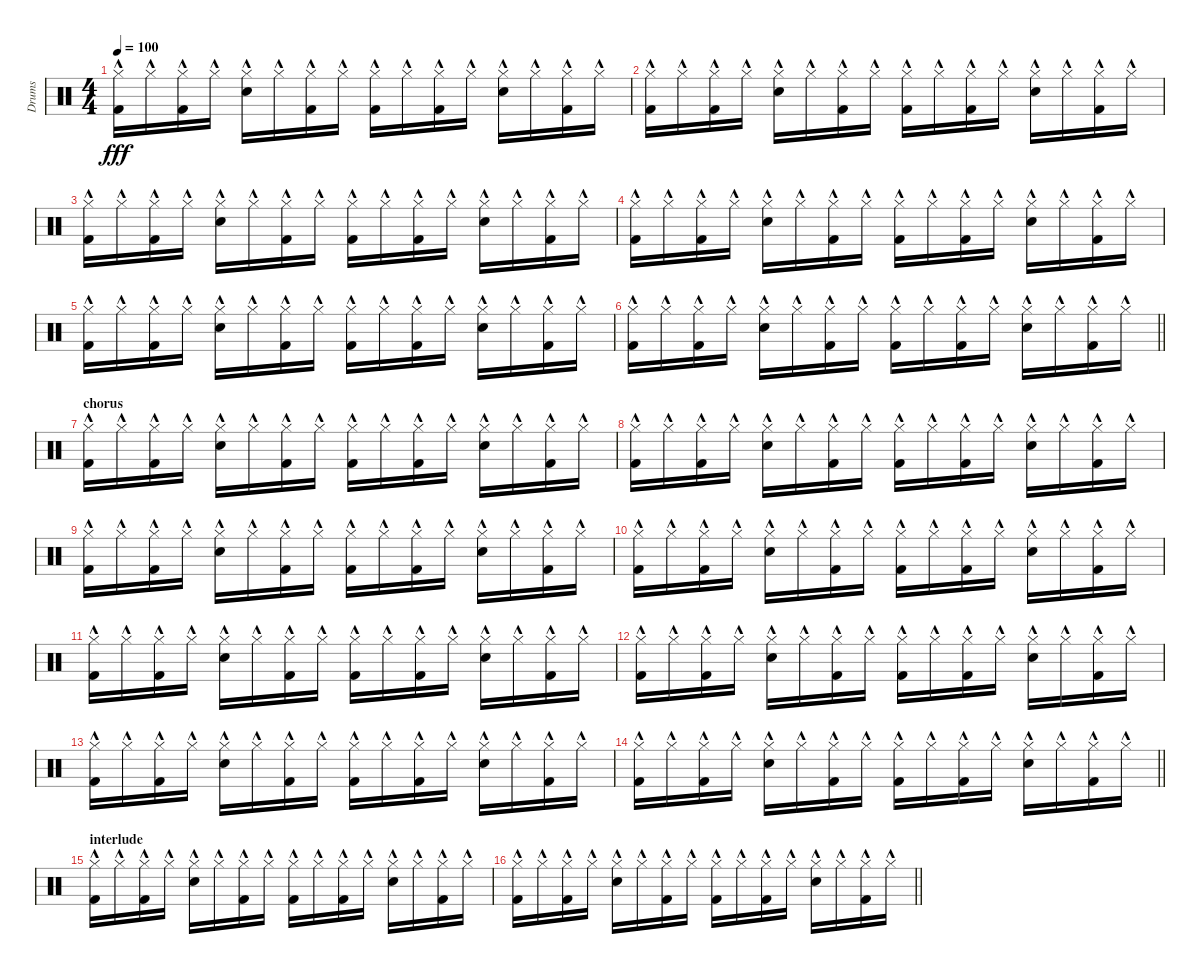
\track ("Drums" "Drums") {instrument percussion}
\staff {score}
\articulation defaults
\ts (4 4)
\tempo 100
\clef neutral
\ks c
("Hi-Hat (closed)"{hac} "Kick (hit) 2").16{dy fff} "Hi-Hat (closed)"{hac}.16 ("Hi-Hat (closed)"{hac} "Kick (hit) 2").16 "Hi-Hat (closed)"{hac}.16 ("Hi-Hat (closed)"{hac} "Electric Snare (hit)"{hac}).16 "Hi-Hat (closed)"{hac}.16 ("Hi-Hat (closed)"{hac} "Kick (hit) 2").16 "Hi-Hat (closed)"{hac}.16 ("Hi-Hat (closed)"{hac} "Kick (hit) 2").16 "Hi-Hat (closed)"{hac}.16 ("Hi-Hat (closed)"{hac} "Kick (hit) 2").16 "Hi-Hat (closed)"{hac}.16 ("Hi-Hat (closed)"{hac} "Electric Snare (hit)"{hac}).16 "Hi-Hat (closed)"{hac}.16 ("Hi-Hat (closed)"{hac} "Kick (hit) 2").16 "Hi-Hat (closed)"{hac}.16 |
("Hi-Hat (closed)"{hac} "Kick (hit) 2").16 "Hi-Hat (closed)"{hac}.16 ("Hi-Hat (closed)"{hac} "Kick (hit) 2").16 "Hi-Hat (closed)"{hac}.16 ("Hi-Hat (closed)"{hac} "Electric Snare (hit)"{hac}).16 "Hi-Hat (closed)"{hac}.16 ("Hi-Hat (closed)"{hac} "Kick (hit) 2").16 "Hi-Hat (closed)"{hac}.16 ("Hi-Hat (closed)"{hac} "Kick (hit) 2").16 "Hi-Hat (closed)"{hac}.16 ("Hi-Hat (closed)"{hac} "Kick (hit) 2").16 "Hi-Hat (closed)"{hac}.16 ("Hi-Hat (closed)"{hac} "Electric Snare (hit)"{hac}).16 "Hi-Hat (closed)"{hac}.16 ("Hi-Hat (closed)"{hac} "Kick (hit) 2").16 "Hi-Hat (closed)"{hac}.16 |
("Hi-Hat (closed)"{hac} "Kick (hit) 2").16 "Hi-Hat (closed)"{hac}.16 ("Hi-Hat (closed)"{hac} "Kick (hit) 2").16 "Hi-Hat (closed)"{hac}.16 ("Hi-Hat (closed)"{hac} "Electric Snare (hit)"{hac}).16 "Hi-Hat (closed)"{hac}.16 ("Hi-Hat (closed)"{hac} "Kick (hit) 2").16 "Hi-Hat (closed)"{hac}.16 ("Hi-Hat (closed)"{hac} "Kick (hit) 2").16 "Hi-Hat (closed)"{hac}.16 ("Hi-Hat (closed)"{hac} "Kick (hit) 2").16 "Hi-Hat (closed)"{hac}.16 ("Hi-Hat (closed)"{hac} "Electric Snare (hit)"{hac}).16 "Hi-Hat (closed)"{hac}.16 ("Hi-Hat (closed)"{hac} "Kick (hit) 2").16 "Hi-Hat (closed)"{hac}.16 |
("Hi-Hat (closed)"{hac} "Kick (hit) 2").16 "Hi-Hat (closed)"{hac}.16 ("Hi-Hat (closed)"{hac} "Kick (hit) 2").16 "Hi-Hat (closed)"{hac}.16 ("Hi-Hat (closed)"{hac} "Electric Snare (hit)"{hac}).16 "Hi-Hat (closed)"{hac}.16 ("Hi-Hat (closed)"{hac} "Kick (hit) 2").16 "Hi-Hat (closed)"{hac}.16 ("Hi-Hat (closed)"{hac} "Kick (hit) 2").16 "Hi-Hat (closed)"{hac}.16 ("Hi-Hat (closed)"{hac} "Kick (hit) 2").16 "Hi-Hat (closed)"{hac}.16 ("Hi-Hat (closed)"{hac} "Electric Snare (hit)"{hac}).16 "Hi-Hat (closed)"{hac}.16 ("Hi-Hat (closed)"{hac} "Kick (hit) 2").16 "Hi-Hat (closed)"{hac}.16 |
("Hi-Hat (closed)"{hac} "Kick (hit) 2").16 "Hi-Hat (closed)"{hac}.16 ("Hi-Hat (closed)"{hac} "Kick (hit) 2").16 "Hi-Hat (closed)"{hac}.16 ("Hi-Hat (closed)"{hac} "Electric Snare (hit)"{hac}).16 "Hi-Hat (closed)"{hac}.16 ("Hi-Hat (closed)"{hac} "Kick (hit) 2").16 "Hi-Hat (closed)"{hac}.16 ("Hi-Hat (closed)"{hac} "Kick (hit) 2").16 "Hi-Hat (closed)"{hac}.16 ("Hi-Hat (closed)"{hac} "Kick (hit) 2").16 "Hi-Hat (closed)"{hac}.16 ("Hi-Hat (closed)"{hac} "Electric Snare (hit)"{hac}).16 "Hi-Hat (closed)"{hac}.16 ("Hi-Hat (closed)"{hac} "Kick (hit) 2").16 "Hi-Hat (closed)"{hac}.16 |
\barLineRight lightlight
("Hi-Hat (closed)"{hac} "Kick (hit) 2").16 "Hi-Hat (closed)"{hac}.16 ("Hi-Hat (closed)"{hac} "Kick (hit) 2").16 "Hi-Hat (closed)"{hac}.16 ("Hi-Hat (closed)"{hac} "Electric Snare (hit)"{hac}).16 "Hi-Hat (closed)"{hac}.16 ("Hi-Hat (closed)"{hac} "Kick (hit) 2").16 "Hi-Hat (closed)"{hac}.16 ("Hi-Hat (closed)"{hac} "Kick (hit) 2").16 "Hi-Hat (closed)"{hac}.16 ("Hi-Hat (closed)"{hac} "Kick (hit) 2").16 "Hi-Hat (closed)"{hac}.16 ("Hi-Hat (closed)"{hac} "Electric Snare (hit)"{hac}).16 "Hi-Hat (closed)"{hac}.16 ("Hi-Hat (closed)"{hac} "Kick (hit) 2").16 "Hi-Hat (closed)"{hac}.16 |
\section ("" "chorus")
("Hi-Hat (closed)"{hac} "Kick (hit) 2").16 "Hi-Hat (closed)"{hac}.16 ("Hi-Hat (closed)"{hac} "Kick (hit) 2").16 "Hi-Hat (closed)"{hac}.16 ("Hi-Hat (closed)"{hac} "Electric Snare (hit)"{hac}).16 "Hi-Hat (closed)"{hac}.16 ("Hi-Hat (closed)"{hac} "Kick (hit) 2").16 "Hi-Hat (closed)"{hac}.16 ("Hi-Hat (closed)"{hac} "Kick (hit) 2").16 "Hi-Hat (closed)"{hac}.16 ("Hi-Hat (closed)"{hac} "Kick (hit) 2").16 "Hi-Hat (closed)"{hac}.16 ("Hi-Hat (closed)"{hac} "Electric Snare (hit)"{hac}).16 "Hi-Hat (closed)"{hac}.16 ("Hi-Hat (closed)"{hac} "Kick (hit) 2").16 "Hi-Hat (closed)"{hac}.16 |
("Hi-Hat (closed)"{hac} "Kick (hit) 2").16 "Hi-Hat (closed)"{hac}.16 ("Hi-Hat (closed)"{hac} "Kick (hit) 2").16 "Hi-Hat (closed)"{hac}.16 ("Hi-Hat (closed)"{hac} "Electric Snare (hit)"{hac}).16 "Hi-Hat (closed)"{hac}.16 ("Hi-Hat (closed)"{hac} "Kick (hit) 2").16 "Hi-Hat (closed)"{hac}.16 ("Hi-Hat (closed)"{hac} "Kick (hit) 2").16 "Hi-Hat (closed)"{hac}.16 ("Hi-Hat (closed)"{hac} "Kick (hit) 2").16 "Hi-Hat (closed)"{hac}.16 ("Hi-Hat (closed)"{hac} "Electric Snare (hit)"{hac}).16 "Hi-Hat (closed)"{hac}.16 ("Hi-Hat (closed)"{hac} "Kick (hit) 2").16 "Hi-Hat (closed)"{hac}.16 |
("Hi-Hat (closed)"{hac} "Kick (hit) 2").16 "Hi-Hat (closed)"{hac}.16 ("Hi-Hat (closed)"{hac} "Kick (hit) 2").16 "Hi-Hat (closed)"{hac}.16 ("Hi-Hat (closed)"{hac} "Electric Snare (hit)"{hac}).16 "Hi-Hat (closed)"{hac}.16 ("Hi-Hat (closed)"{hac} "Kick (hit) 2").16 "Hi-Hat (closed)"{hac}.16 ("Hi-Hat (closed)"{hac} "Kick (hit) 2").16 "Hi-Hat (closed)"{hac}.16 ("Hi-Hat (closed)"{hac} "Kick (hit) 2").16 "Hi-Hat (closed)"{hac}.16 ("Hi-Hat (closed)"{hac} "Electric Snare (hit)"{hac}).16 "Hi-Hat (closed)"{hac}.16 ("Hi-Hat (closed)"{hac} "Kick (hit) 2").16 "Hi-Hat (closed)"{hac}.16 |
("Hi-Hat (closed)"{hac} "Kick (hit) 2").16 "Hi-Hat (closed)"{hac}.16 ("Hi-Hat (closed)"{hac} "Kick (hit) 2").16 "Hi-Hat (closed)"{hac}.16 ("Hi-Hat (closed)"{hac} "Electric Snare (hit)"{hac}).16 "Hi-Hat (closed)"{hac}.16 ("Hi-Hat (closed)"{hac} "Kick (hit) 2").16 "Hi-Hat (closed)"{hac}.16 ("Hi-Hat (closed)"{hac} "Kick (hit) 2").16 "Hi-Hat (closed)"{hac}.16 ("Hi-Hat (closed)"{hac} "Kick (hit) 2").16 "Hi-Hat (closed)"{hac}.16 ("Hi-Hat (closed)"{hac} "Electric Snare (hit)"{hac}).16 "Hi-Hat (closed)"{hac}.16 ("Hi-Hat (closed)"{hac} "Kick (hit) 2").16 "Hi-Hat (closed)"{hac}.16 |
("Hi-Hat (closed)"{hac} "Kick (hit) 2").16 "Hi-Hat (closed)"{hac}.16 ("Hi-Hat (closed)"{hac} "Kick (hit) 2").16 "Hi-Hat (closed)"{hac}.16 ("Hi-Hat (closed)"{hac} "Electric Snare (hit)"{hac}).16 "Hi-Hat (closed)"{hac}.16 ("Hi-Hat (closed)"{hac} "Kick (hit) 2").16 "Hi-Hat (closed)"{hac}.16 ("Hi-Hat (closed)"{hac} "Kick (hit) 2").16 "Hi-Hat (closed)"{hac}.16 ("Hi-Hat (closed)"{hac} "Kick (hit) 2").16 "Hi-Hat (closed)"{hac}.16 ("Hi-Hat (closed)"{hac} "Electric Snare (hit)"{hac}).16 "Hi-Hat (closed)"{hac}.16 ("Hi-Hat (closed)"{hac} "Kick (hit) 2").16 "Hi-Hat (closed)"{hac}.16 |
("Hi-Hat (closed)"{hac} "Kick (hit) 2").16 "Hi-Hat (closed)"{hac}.16 ("Hi-Hat (closed)"{hac} "Kick (hit) 2").16 "Hi-Hat (closed)"{hac}.16 ("Hi-Hat (closed)"{hac} "Electric Snare (hit)"{hac}).16 "Hi-Hat (closed)"{hac}.16 ("Hi-Hat (closed)"{hac} "Kick (hit) 2").16 "Hi-Hat (closed)"{hac}.16 ("Hi-Hat (closed)"{hac} "Kick (hit) 2").16 "Hi-Hat (closed)"{hac}.16 ("Hi-Hat (closed)"{hac} "Kick (hit) 2").16 "Hi-Hat (closed)"{hac}.16 ("Hi-Hat (closed)"{hac} "Electric Snare (hit)"{hac}).16 "Hi-Hat (closed)"{hac}.16 ("Hi-Hat (closed)"{hac} "Kick (hit) 2").16 "Hi-Hat (closed)"{hac}.16 |
("Hi-Hat (closed)"{hac} "Kick (hit) 2").16 "Hi-Hat (closed)"{hac}.16 ("Hi-Hat (closed)"{hac} "Kick (hit) 2").16 "Hi-Hat (closed)"{hac}.16 ("Hi-Hat (closed)"{hac} "Electric Snare (hit)"{hac}).16 "Hi-Hat (closed)"{hac}.16 ("Hi-Hat (closed)"{hac} "Kick (hit) 2").16 "Hi-Hat (closed)"{hac}.16 ("Hi-Hat (closed)"{hac} "Kick (hit) 2").16 "Hi-Hat (closed)"{hac}.16 ("Hi-Hat (closed)"{hac} "Kick (hit) 2").16 "Hi-Hat (closed)"{hac}.16 ("Hi-Hat (closed)"{hac} "Electric Snare (hit)"{hac}).16 "Hi-Hat (closed)"{hac}.16 ("Hi-Hat (closed)"{hac} "Kick (hit) 2").16 "Hi-Hat (closed)"{hac}.16 |
\barLineRight lightlight
("Hi-Hat (closed)"{hac} "Kick (hit) 2").16 "Hi-Hat (closed)"{hac}.16 ("Hi-Hat (closed)"{hac} "Kick (hit) 2").16 "Hi-Hat (closed)"{hac}.16 ("Hi-Hat (closed)"{hac} "Electric Snare (hit)"{hac}).16 "Hi-Hat (closed)"{hac}.16 ("Hi-Hat (closed)"{hac} "Kick (hit) 2").16 "Hi-Hat (closed)"{hac}.16 ("Hi-Hat (closed)"{hac} "Kick (hit) 2").16 "Hi-Hat (closed)"{hac}.16 ("Hi-Hat (closed)"{hac} "Kick (hit) 2").16 "Hi-Hat (closed)"{hac}.16 ("Hi-Hat (closed)"{hac} "Electric Snare (hit)"{hac}).16 "Hi-Hat (closed)"{hac}.16 ("Hi-Hat (closed)"{hac} "Kick (hit) 2").16 "Hi-Hat (closed)"{hac}.16 |
\section ("" "interlude")
("Hi-Hat (closed)"{hac} "Kick (hit) 2").16 "Hi-Hat (closed)"{hac}.16 ("Hi-Hat (closed)"{hac} "Kick (hit) 2").16 "Hi-Hat (closed)"{hac}.16 ("Hi-Hat (closed)"{hac} "Electric Snare (hit)"{hac}).16 "Hi-Hat (closed)"{hac}.16 ("Hi-Hat (closed)"{hac} "Kick (hit) 2").16 "Hi-Hat (closed)"{hac}.16 ("Hi-Hat (closed)"{hac} "Kick (hit) 2").16 "Hi-Hat (closed)"{hac}.16 ("Hi-Hat (closed)"{hac} "Kick (hit) 2").16 "Hi-Hat (closed)"{hac}.16 ("Hi-Hat (closed)"{hac} "Electric Snare (hit)"{hac}).16 "Hi-Hat (closed)"{hac}.16 ("Hi-Hat (closed)"{hac} "Kick (hit) 2").16 "Hi-Hat (closed)"{hac}.16 |
\barLineRight lightlight
("Hi-Hat (closed)"{hac} "Kick (hit) 2").16 "Hi-Hat (closed)"{hac}.16 ("Hi-Hat (closed)"{hac} "Kick (hit) 2").16 "Hi-Hat (closed)"{hac}.16 ("Hi-Hat (closed)"{hac} "Electric Snare (hit)"{hac}).16 "Hi-Hat (closed)"{hac}.16 ("Hi-Hat (closed)"{hac} "Kick (hit) 2").16 "Hi-Hat (closed)"{hac}.16 ("Hi-Hat (closed)"{hac} "Kick (hit) 2").16 "Hi-Hat (closed)"{hac}.16 ("Hi-Hat (closed)"{hac} "Kick (hit) 2").16 "Hi-Hat (closed)"{hac}.16 ("Hi-Hat (closed)"{hac} "Electric Snare (hit)"{hac}).16 "Hi-Hat (closed)"{hac}.16 ("Hi-Hat (closed)"{hac} "Kick (hit) 2").16 "Hi-Hat (closed)"{hac}.16
